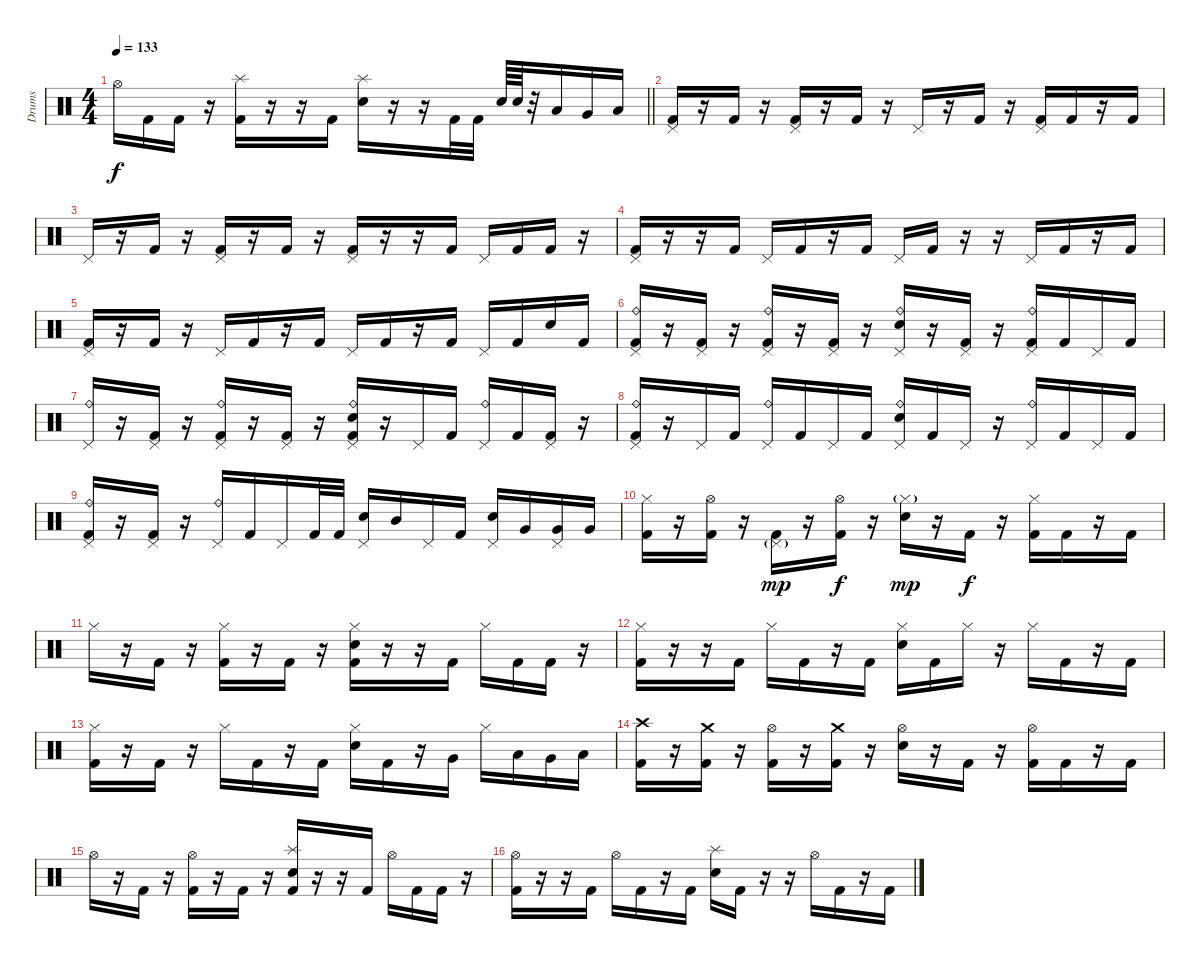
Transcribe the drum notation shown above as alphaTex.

\track ("Drums" "Drums") {instrument percussion}
\staff {score}
\articulation defaults
\ts (4 4)
\tempo 133
\clef neutral
\barLineRight lightlight
\ks c "Hi-Hat (open)".16{dy f} "Kick (hit) 2".16 "Kick (hit) 2".16
r.16 ("Splash (hit)" "Kick (hit) 2").16 r.16 r.16 "Kick (hit) 2".16 ("Splash (hit)" "Electric Snare (hit)").16 r.16 r.16 "Kick (hit) 2".32 "Kick (hit) 2".32 "Electric Snare (hit)".64 "Electric Snare (hit)".64 r.32 "Low Tom (hit)".16 "Very Low Tom (hit)".16 "Low Floor Tom (hit)".16 |
\section ("" "")
("Pedal Hi-Hat (hit)" "Kick (hit) 2").16 r.16 "Kick (hit) 2".16 r.16 ("Pedal Hi-Hat (hit)" "Kick (hit) 2").16 r.16 "Kick (hit) 2".16 r.16 "Pedal Hi-Hat (hit)".16 r.16 "Kick (hit) 2".16 r.16 ("Pedal Hi-Hat (hit)" "Kick (hit) 2").16 "Kick (hit) 2".16 r.16 "Kick (hit) 2".16 |
"Pedal Hi-Hat (hit)".16 r.16 "Kick (hit) 2".16 r.16 ("Pedal Hi-Hat (hit)" "Kick (hit) 2").16 r.16 "Kick (hit) 2".16 r.16 ("Pedal Hi-Hat (hit)" "Kick (hit) 2").16 r.16 r.16 "Kick (hit) 2".16 "Pedal Hi-Hat (hit)".16 "Kick (hit) 2".16 "Kick (hit) 2".16 r.16 |
("Pedal Hi-Hat (hit)" "Kick (hit) 2").16 r.16 r.16 "Kick (hit) 2".16 "Pedal Hi-Hat (hit)".16 "Kick (hit) 2".16 r.16 "Kick (hit) 2".16 "Pedal Hi-Hat (hit)".16 "Kick (hit) 2".16 r.16 r.16 "Pedal Hi-Hat (hit)".16 "Kick (hit) 2".16 r.16 "Kick (hit) 2".16 |
("Pedal Hi-Hat (hit)" "Kick (hit) 2").16 r.16 "Kick (hit) 2".16 r.16 "Pedal Hi-Hat (hit)".16 "Kick (hit) 2".16 r.16 "Kick (hit) 2".16 "Pedal Hi-Hat (hit)".16 "Kick (hit) 2".16 r.16 "Kick (hit) 2".16 "Pedal Hi-Hat (hit)".16 "Kick (hit) 2".16 "Electric Snare (hit)".16 "Kick (hit) 2".16 |
("Ride (bell)" "Pedal Hi-Hat (hit)" "Kick (hit) 2").16 r.16 ("Pedal Hi-Hat (hit)" "Kick (hit) 2").16 r.16 ("Ride (bell)" "Pedal Hi-Hat (hit)" "Kick (hit) 2").16 r.16 ("Pedal Hi-Hat (hit)" "Kick (hit) 2").16 r.16 ("Ride (bell)" "Pedal Hi-Hat (hit)" "Electric Snare (hit)").16 r.16 ("Pedal Hi-Hat (hit)" "Kick (hit) 2").16 r.16 ("Ride (bell)" "Pedal Hi-Hat (hit)" "Kick (hit) 2").16 "Kick (hit) 2".16 "Pedal Hi-Hat (hit)".16 "Kick (hit) 2".16 |
("Ride (bell)" "Pedal Hi-Hat (hit)").16 r.16 ("Pedal Hi-Hat (hit)" "Kick (hit) 2").16 r.16 ("Ride (bell)" "Pedal Hi-Hat (hit)" "Kick (hit) 2").16 r.16 ("Pedal Hi-Hat (hit)" "Kick (hit) 2").16 r.16 ("Ride (bell)" "Pedal Hi-Hat (hit)" "Electric Snare (hit)" "Kick (hit) 2").16 r.16 "Pedal Hi-Hat (hit)".16 "Kick (hit) 2".16 ("Ride (bell)" "Pedal Hi-Hat (hit)").16 "Kick (hit) 2".16 ("Pedal Hi-Hat (hit)" "Kick (hit) 2").16 r.16 |
("Ride (bell)" "Pedal Hi-Hat (hit)" "Kick (hit) 2").16 r.16 "Pedal Hi-Hat (hit)".16 "Kick (hit) 2".16 ("Ride (bell)" "Pedal Hi-Hat (hit)").16 "Kick (hit) 2".16 "Pedal Hi-Hat (hit)".16 "Kick (hit) 2".16 ("Ride (bell)" "Pedal Hi-Hat (hit)" "Electric Snare (hit)").16 "Kick (hit) 2".16 "Pedal Hi-Hat (hit)".16 r.16 ("Ride (bell)" "Pedal Hi-Hat (hit)").16 "Kick (hit) 2".16 "Pedal Hi-Hat (hit)".16 "Kick (hit) 2".16 |
("Ride (bell)" "Pedal Hi-Hat (hit)" "Kick (hit) 2").16 r.16 ("Pedal Hi-Hat (hit)" "Kick (hit) 2").16 r.16 ("Ride (bell)" "Pedal Hi-Hat (hit)").16 "Kick (hit) 2".16 "Pedal Hi-Hat (hit)".16 "Kick (hit) 2".32 "Kick (hit) 2".32 ("Pedal Hi-Hat (hit)" "Electric Snare (hit)").16 "Mid Tom (hit)".16 "Pedal Hi-Hat (hit)".16 "Kick (hit) 2".16 ("Pedal Hi-Hat (hit)" "Electric Snare (hit)").16 "Very Low Tom (hit)".16 ("Pedal Hi-Hat (hit)" "Very Low Tom (hit)").16 "Very Low Tom (hit)".16 |
("Hi-Hat (closed)" "Kick (hit) 2").16 r.16 ("Hi-Hat (open)" "Kick (hit) 2").16 r.16 ("Pedal Hi-Hat (hit)"{g} "Kick (hit) 2").16{dy mp} r.16 ("Hi-Hat (open)" "Kick (hit) 2").16{dy f} r.16 ("Hi-Hat (closed)"{g} "Electric Snare (hit)").16{dy mp} r.16 "Kick (hit) 2".16{dy f} r.16 ("Hi-Hat (closed)" "Kick (hit) 2").16 "Kick (hit) 2".16 r.16 "Kick (hit) 2".16 |
"Hi-Hat (closed)".16 r.16 "Kick (hit) 2".16 r.16 ("Hi-Hat (closed)" "Kick (hit) 2").16 r.16 "Kick (hit) 2".16 r.16 ("Hi-Hat (closed)" "Electric Snare (hit)" "Kick (hit) 2").16 r.16 r.16 "Kick (hit) 2".16 "Hi-Hat (closed)".16 "Kick (hit) 2".16 "Kick (hit) 2".16 r.16 |
("Hi-Hat (closed)" "Kick (hit) 2").16 r.16 r.16 "Kick (hit) 2".16 "Hi-Hat (closed)".16 "Kick (hit) 2".16 r.16 "Kick (hit) 2".16 ("Hi-Hat (closed)" "Electric Snare (hit)").16 "Kick (hit) 2".16 "Hi-Hat (closed)".16 r.16 "Hi-Hat (closed)".16 "Kick (hit) 2".16 r.16 "Kick (hit) 2".16 |
("Hi-Hat (closed)" "Kick (hit) 2").16 r.16 "Kick (hit) 2".16 r.16 "Hi-Hat (closed)".16 "Kick (hit) 2".16 r.16 "Kick (hit) 2".16 ("Hi-Hat (closed)" "Electric Snare (hit)").16 "Kick (hit) 2".16 r.16 "Very Low Tom (hit)".16 "Hi-Hat (closed)".16 "Low Tom (hit)".16 "Very Low Tom (hit)".16 "Low Floor Tom (hit)".16 |
("Crash high (hit)" "Kick (hit) 2").16 r.16 ("Crash medium (hit)" "Kick (hit) 2").16 r.16 ("Hi-Hat (open)" "Kick (hit) 2").16 r.16 ("Crash medium (hit)" "Kick (hit) 2").16 r.16 ("Hi-Hat (open)" "Electric Snare (hit)").16 r.16 "Kick (hit) 2".16 r.16 ("Hi-Hat (open)" "Kick (hit) 2").16 "Kick (hit) 2".16 r.16 "Kick (hit) 2".16 |
"Hi-Hat (open)".16 r.16 "Kick (hit) 2".16 r.16 ("Hi-Hat (open)" "Kick (hit) 2").16 r.16 "Kick (hit) 2".16 r.16 ("Splash (hit)" "Electric Snare (hit)" "Kick (hit) 2").16 r.16 r.16 "Kick (hit) 2".16 "Hi-Hat (open)".16 "Kick (hit) 2".16 "Kick (hit) 2".16 r.16 |
("Hi-Hat (open)" "Kick (hit) 2").16 r.16 r.16 "Kick (hit) 2".16 "Hi-Hat (open)".16 "Kick (hit) 2".16 r.16 "Kick (hit) 2".16 ("Splash (hit)" "Electric Snare (hit)").16 "Kick (hit) 2".16 r.16 r.16 "Hi-Hat (open)".16 "Kick (hit) 2".16 r.16 "Kick (hit) 2".16
